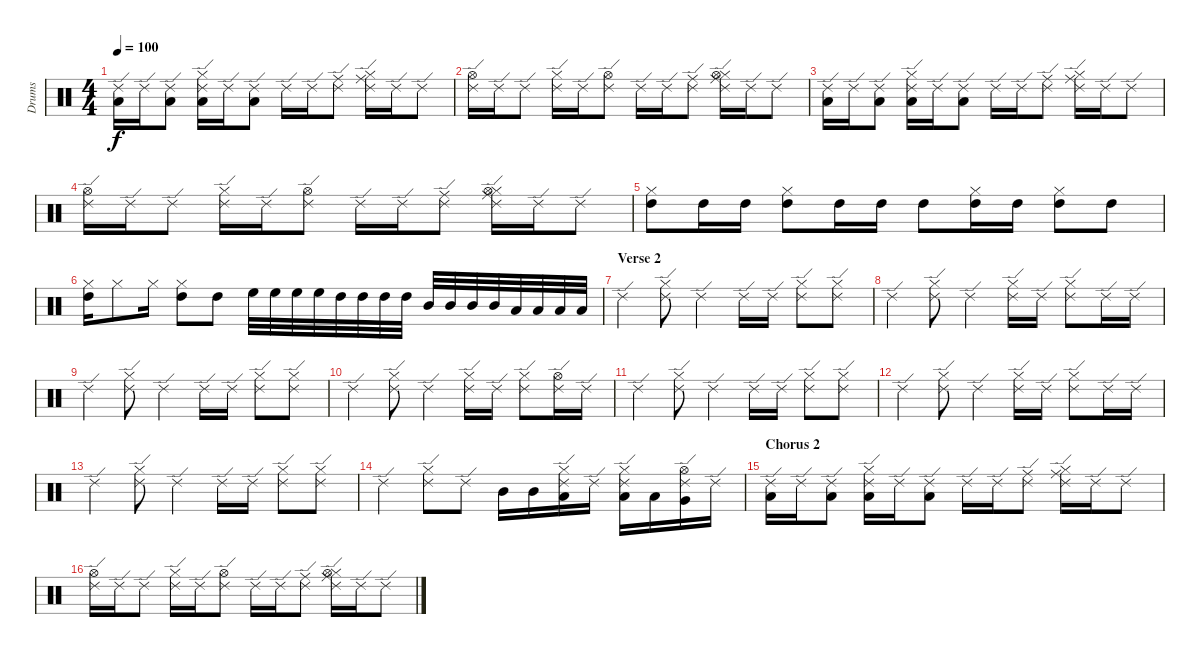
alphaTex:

\track ("Drums" "Drums") {instrument percussion}
\staff {score}
\articulation defaults
\ts (4 4)
\tempo 100
\clef neutral
\ks c
("Ride (edge) 2" "Low Tom (hit)").16{dy f} "Ride (edge) 2".16 ("Ride (edge) 2" "Low Tom (hit)").8 ("Ride (edge) 2" "Hi-Hat (closed)" "Low Tom (hit)").16 "Ride (edge) 2".16 ("Ride (edge) 2" "Low Tom (hit)").8 "Ride (edge) 2".16 "Ride (edge) 2".16 ("Ride (edge) 2" "Ride (middle)").8 ("Ride (edge) 2" "Hi-Hat (closed)" "Ride (middle)").16 "Ride (edge) 2".16 "Ride (edge) 2".8 |
("Ride (edge) 2" "Hi-Hat (open)").16 "Ride (edge) 2".16 "Ride (edge) 2".8 ("Ride (edge) 2" "Hi-Hat (closed)").16 "Ride (edge) 2".16 ("Ride (edge) 2" "Hi-Hat (open)").8 "Ride (edge) 2".16 "Ride (edge) 2".16 ("Ride (edge) 2" "Ride (middle)").8 ("Ride (edge) 2" "Hi-Hat (closed)" "Ride (middle)" "Hi-Hat (open)").16 "Ride (edge) 2".16 "Ride (edge) 2".8 |
("Ride (edge) 2" "Low Tom (hit)").16 "Ride (edge) 2".16 ("Ride (edge) 2" "Low Tom (hit)").8 ("Ride (edge) 2" "Hi-Hat (closed)" "Low Tom (hit)").16 "Ride (edge) 2".16 ("Ride (edge) 2" "Low Tom (hit)").8 "Ride (edge) 2".16 "Ride (edge) 2".16 ("Ride (edge) 2" "Ride (middle)").8 ("Ride (edge) 2" "Hi-Hat (closed)" "Ride (middle)").16 "Ride (edge) 2".16 "Ride (edge) 2".8 |
("Ride (edge) 2" "Hi-Hat (open)").16 "Ride (edge) 2".16 "Ride (edge) 2".8 ("Ride (edge) 2" "Hi-Hat (closed)").16 "Ride (edge) 2".16 ("Ride (edge) 2" "Hi-Hat (open)").8 "Ride (edge) 2".16 "Ride (edge) 2".16 ("Ride (edge) 2" "Ride (middle)").8 ("Ride (edge) 2" "Hi-Hat (closed)" "Ride (middle)" "Hi-Hat (open)").16 "Ride (edge) 2".16 "Ride (edge) 2".8 |
("Hi-Hat (closed)" "High Tom (hit)").8 "High Tom (hit)".16 "High Tom (hit)".16 ("Hi-Hat (closed)" "High Tom (hit)").8 "High Tom (hit)".16 "High Tom (hit)".16 "High Tom (hit)".8 ("Hi-Hat (closed)" "High Tom (hit)").16 "High Tom (hit)".16 ("Hi-Hat (closed)" "High Tom (hit)").8 "High Tom (hit)".8 |
("Hi-Hat (closed)" "High Tom (hit)").16 "Hi-Hat (closed)".8 "Hi-Hat (closed)".16 ("Hi-Hat (closed)" "High Tom (hit)").8 "High Tom (hit)".8 "High Floor Tom (hit)".32 "High Floor Tom (hit)".32 "High Floor Tom (hit)".32 "High Floor Tom (hit)".32 "High Tom (hit)".32 "High Tom (hit)".32 "High Tom (hit)".32 "High Tom (hit)".32 "Mid Tom (hit)".32 "Mid Tom (hit)".32 "Mid Tom (hit)".32 "Mid Tom (hit)".32 "Low Tom (hit)".32 "Low Tom (hit)".32 "Low Tom (hit)".32 "Low Tom (hit)".32 |
\section ("" "Verse 2")
"Ride (edge) 2".4 ("Ride (edge) 2" "Hi-Hat (closed)").8 "Ride (edge) 2".4 "Ride (edge) 2".16 "Ride (edge) 2".16 ("Ride (edge) 2" "Hi-Hat (closed)").8 ("Ride (edge) 2" "Hi-Hat (closed)").8 |
"Ride (edge) 2".4 ("Ride (edge) 2" "Hi-Hat (closed)").8 "Ride (edge) 2".4 ("Ride (edge) 2" "Hi-Hat (closed)").16 "Ride (edge) 2".16 ("Ride (edge) 2" "Hi-Hat (closed)").8 "Ride (edge) 2".16 "Ride (edge) 2".16 |
"Ride (edge) 2".4 ("Ride (edge) 2" "Hi-Hat (closed)").8 "Ride (edge) 2".4 "Ride (edge) 2".16 "Ride (edge) 2".16 ("Ride (edge) 2" "Hi-Hat (closed)").8 ("Ride (edge) 2" "Hi-Hat (closed)").8 |
"Ride (edge) 2".4 ("Ride (edge) 2" "Hi-Hat (closed)").8 "Ride (edge) 2".4 ("Ride (edge) 2" "Hi-Hat (closed)").16 "Ride (edge) 2".16 ("Ride (edge) 2" "Hi-Hat (closed)").8 ("Ride (edge) 2" "Hi-Hat (open)").16 "Ride (edge) 2".16 |
"Ride (edge) 2".4 ("Ride (edge) 2" "Hi-Hat (closed)").8 "Ride (edge) 2".4 "Ride (edge) 2".16 "Ride (edge) 2".16 ("Ride (edge) 2" "Hi-Hat (closed)").8 ("Ride (edge) 2" "Hi-Hat (closed)").8 |
"Ride (edge) 2".4 ("Ride (edge) 2" "Hi-Hat (closed)").8 "Ride (edge) 2".4 ("Ride (edge) 2" "Hi-Hat (closed)").16 "Ride (edge) 2".16 ("Ride (edge) 2" "Hi-Hat (closed)").8 "Ride (edge) 2".16 "Ride (edge) 2".16 |
"Ride (edge) 2".4 ("Ride (edge) 2" "Hi-Hat (closed)").8 "Ride (edge) 2".4 "Ride (edge) 2".16 "Ride (edge) 2".16 ("Ride (edge) 2" "Hi-Hat (closed)").8 ("Ride (edge) 2" "Hi-Hat (closed)").8 |
"Ride (edge) 2".4 ("Ride (edge) 2" "Hi-Hat (closed)").8 "Ride (edge) 2".8 "Mid Tom (hit)".16 "Mid Tom (hit)".16 ("Ride (edge) 2" "Hi-Hat (closed)" "Low Tom (hit)").16 "Ride (edge) 2".16 ("Ride (edge) 2" "Hi-Hat (closed)" "Low Tom (hit)").16 "Low Tom (hit)".16 ("Ride (edge) 2" "Hi-Hat (open)" "Very Low Tom (hit)").16 "Ride (edge) 2".16 |
\section ("" "Chorus 2")
("Ride (edge) 2" "Low Tom (hit)").16 "Ride (edge) 2".16 ("Ride (edge) 2" "Low Tom (hit)").8 ("Ride (edge) 2" "Hi-Hat (closed)" "Low Tom (hit)").16 "Ride (edge) 2".16 ("Ride (edge) 2" "Low Tom (hit)").8 "Ride (edge) 2".16 "Ride (edge) 2".16 ("Ride (edge) 2" "Ride (middle)").8 ("Ride (edge) 2" "Hi-Hat (closed)" "Ride (middle)").16 "Ride (edge) 2".16 "Ride (edge) 2".8 |
("Ride (edge) 2" "Hi-Hat (open)").16 "Ride (edge) 2".16 "Ride (edge) 2".8 ("Ride (edge) 2" "Hi-Hat (closed)").16 "Ride (edge) 2".16 ("Ride (edge) 2" "Hi-Hat (open)").8 "Ride (edge) 2".16 "Ride (edge) 2".16 ("Ride (edge) 2" "Ride (middle)").8 ("Ride (edge) 2" "Hi-Hat (closed)" "Ride (middle)" "Hi-Hat (open)").16 "Ride (edge) 2".16 "Ride (edge) 2".8
